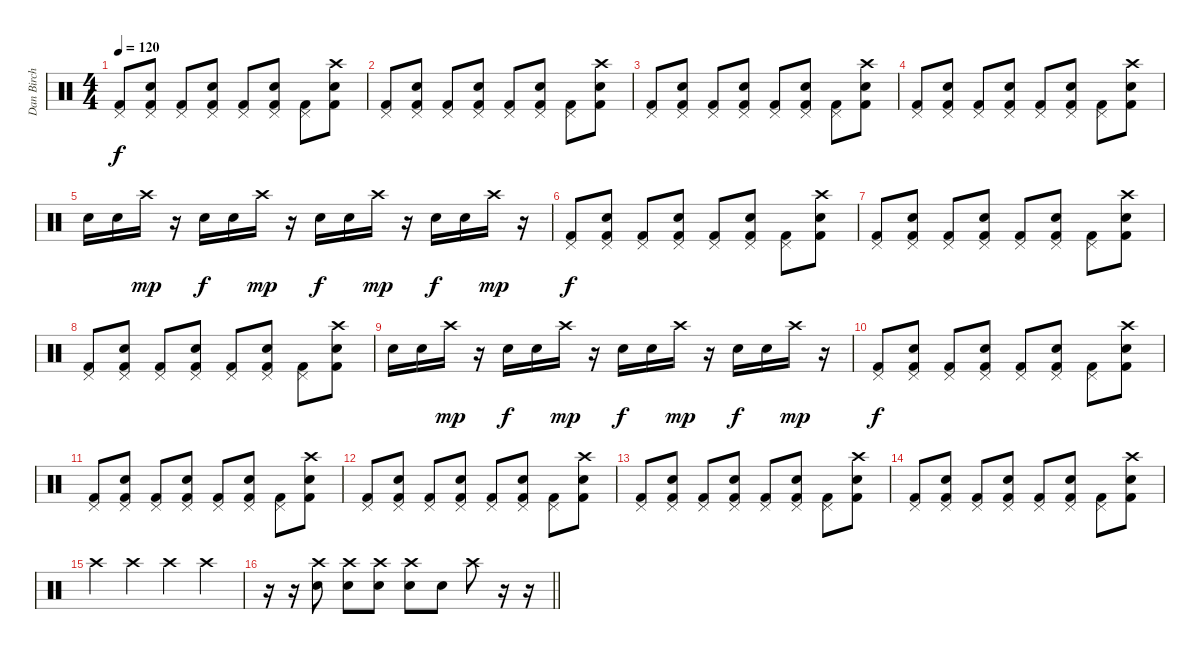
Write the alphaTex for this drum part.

\track ("Dan Birch" "Dan Birch") {instrument percussion}
\staff {score}
\articulation defaults
\ts (4 4)
\tempo 120
\clef neutral
\ks c
("Pedal Hi-Hat (hit)" "Kick (hit) 2").8{dy f} ("Pedal Hi-Hat (hit)" "Snare (hit) 2" "Kick (hit) 2").8 ("Pedal Hi-Hat (hit)" "Kick (hit) 2").8 ("Pedal Hi-Hat (hit)" "Snare (hit) 2" "Kick (hit) 2").8 ("Pedal Hi-Hat (hit)" "Kick (hit) 2").8 ("Pedal Hi-Hat (hit)" "Snare (hit) 2" "Kick (hit) 2").8 ("Pedal Hi-Hat (hit)" "Kick (hit) 2").8 ("Crash high (hit)" "Snare (hit) 2" "Kick (hit) 2").8 |
("Pedal Hi-Hat (hit)" "Kick (hit) 2").8 ("Pedal Hi-Hat (hit)" "Snare (hit) 2" "Kick (hit) 2").8 ("Pedal Hi-Hat (hit)" "Kick (hit) 2").8 ("Pedal Hi-Hat (hit)" "Snare (hit) 2" "Kick (hit) 2").8 ("Pedal Hi-Hat (hit)" "Kick (hit) 2").8 ("Pedal Hi-Hat (hit)" "Snare (hit) 2" "Kick (hit) 2").8 ("Pedal Hi-Hat (hit)" "Kick (hit) 2").8 ("Crash high (hit)" "Snare (hit) 2" "Kick (hit) 2").8 |
("Pedal Hi-Hat (hit)" "Kick (hit) 2").8 ("Pedal Hi-Hat (hit)" "Snare (hit) 2" "Kick (hit) 2").8 ("Pedal Hi-Hat (hit)" "Kick (hit) 2").8 ("Pedal Hi-Hat (hit)" "Snare (hit) 2" "Kick (hit) 2").8 ("Pedal Hi-Hat (hit)" "Kick (hit) 2").8 ("Pedal Hi-Hat (hit)" "Snare (hit) 2" "Kick (hit) 2").8 ("Pedal Hi-Hat (hit)" "Kick (hit) 2").8 ("Crash high (hit)" "Snare (hit) 2" "Kick (hit) 2").8 |
("Pedal Hi-Hat (hit)" "Kick (hit) 2").8 ("Pedal Hi-Hat (hit)" "Snare (hit) 2" "Kick (hit) 2").8 ("Pedal Hi-Hat (hit)" "Kick (hit) 2").8 ("Pedal Hi-Hat (hit)" "Snare (hit) 2" "Kick (hit) 2").8 ("Pedal Hi-Hat (hit)" "Kick (hit) 2").8 ("Pedal Hi-Hat (hit)" "Snare (hit) 2" "Kick (hit) 2").8 ("Pedal Hi-Hat (hit)" "Kick (hit) 2").8 ("Crash high (hit)" "Snare (hit) 2" "Kick (hit) 2").8 |
"Snare (hit) 2".16 "Snare (hit) 2".16 "Crash high (hit)".16{dy mp} r.16 "Snare (hit) 2".16{dy f} "Snare (hit) 2".16 "Crash high (hit)".16{dy mp} r.16 "Snare (hit) 2".16{dy f} "Snare (hit) 2".16 "Crash high (hit)".16{dy mp} r.16 "Snare (hit) 2".16{dy f} "Snare (hit) 2".16 "Crash high (hit)".16{dy mp} r.16 |
("Pedal Hi-Hat (hit)" "Kick (hit) 2").8{dy f} ("Pedal Hi-Hat (hit)" "Snare (hit) 2" "Kick (hit) 2").8 ("Pedal Hi-Hat (hit)" "Kick (hit) 2").8 ("Pedal Hi-Hat (hit)" "Snare (hit) 2" "Kick (hit) 2").8 ("Pedal Hi-Hat (hit)" "Kick (hit) 2").8 ("Pedal Hi-Hat (hit)" "Snare (hit) 2" "Kick (hit) 2").8 ("Pedal Hi-Hat (hit)" "Kick (hit) 2").8 ("Crash high (hit)" "Snare (hit) 2" "Kick (hit) 2").8 |
("Pedal Hi-Hat (hit)" "Kick (hit) 2").8 ("Pedal Hi-Hat (hit)" "Snare (hit) 2" "Kick (hit) 2").8 ("Pedal Hi-Hat (hit)" "Kick (hit) 2").8 ("Pedal Hi-Hat (hit)" "Snare (hit) 2" "Kick (hit) 2").8 ("Pedal Hi-Hat (hit)" "Kick (hit) 2").8 ("Pedal Hi-Hat (hit)" "Snare (hit) 2" "Kick (hit) 2").8 ("Pedal Hi-Hat (hit)" "Kick (hit) 2").8 ("Crash high (hit)" "Snare (hit) 2" "Kick (hit) 2").8 |
("Pedal Hi-Hat (hit)" "Kick (hit) 2").8 ("Pedal Hi-Hat (hit)" "Snare (hit) 2" "Kick (hit) 2").8 ("Pedal Hi-Hat (hit)" "Kick (hit) 2").8 ("Pedal Hi-Hat (hit)" "Snare (hit) 2" "Kick (hit) 2").8 ("Pedal Hi-Hat (hit)" "Kick (hit) 2").8 ("Pedal Hi-Hat (hit)" "Snare (hit) 2" "Kick (hit) 2").8 ("Pedal Hi-Hat (hit)" "Kick (hit) 2").8 ("Crash high (hit)" "Snare (hit) 2" "Kick (hit) 2").8 |
"Snare (hit) 2".16 "Snare (hit) 2".16 "Crash high (hit)".16{dy mp} r.16 "Snare (hit) 2".16{dy f} "Snare (hit) 2".16 "Crash high (hit)".16{dy mp} r.16 "Snare (hit) 2".16{dy f} "Snare (hit) 2".16 "Crash high (hit)".16{dy mp} r.16 "Snare (hit) 2".16{dy f} "Snare (hit) 2".16 "Crash high (hit)".16{dy mp} r.16 |
("Pedal Hi-Hat (hit)" "Kick (hit) 2").8{dy f} ("Pedal Hi-Hat (hit)" "Snare (hit) 2" "Kick (hit) 2").8 ("Pedal Hi-Hat (hit)" "Kick (hit) 2").8 ("Pedal Hi-Hat (hit)" "Snare (hit) 2" "Kick (hit) 2").8 ("Pedal Hi-Hat (hit)" "Kick (hit) 2").8 ("Pedal Hi-Hat (hit)" "Snare (hit) 2" "Kick (hit) 2").8 ("Pedal Hi-Hat (hit)" "Kick (hit) 2").8 ("Crash high (hit)" "Snare (hit) 2" "Kick (hit) 2").8 |
("Pedal Hi-Hat (hit)" "Kick (hit) 2").8 ("Pedal Hi-Hat (hit)" "Snare (hit) 2" "Kick (hit) 2").8 ("Pedal Hi-Hat (hit)" "Kick (hit) 2").8 ("Pedal Hi-Hat (hit)" "Snare (hit) 2" "Kick (hit) 2").8 ("Pedal Hi-Hat (hit)" "Kick (hit) 2").8 ("Pedal Hi-Hat (hit)" "Snare (hit) 2" "Kick (hit) 2").8 ("Pedal Hi-Hat (hit)" "Kick (hit) 2").8 ("Crash high (hit)" "Snare (hit) 2" "Kick (hit) 2").8 |
("Pedal Hi-Hat (hit)" "Kick (hit) 2").8 ("Pedal Hi-Hat (hit)" "Snare (hit) 2" "Kick (hit) 2").8 ("Pedal Hi-Hat (hit)" "Kick (hit) 2").8 ("Pedal Hi-Hat (hit)" "Snare (hit) 2" "Kick (hit) 2").8 ("Pedal Hi-Hat (hit)" "Kick (hit) 2").8 ("Pedal Hi-Hat (hit)" "Snare (hit) 2" "Kick (hit) 2").8 ("Pedal Hi-Hat (hit)" "Kick (hit) 2").8 ("Crash high (hit)" "Snare (hit) 2" "Kick (hit) 2").8 |
("Pedal Hi-Hat (hit)" "Kick (hit) 2").8 ("Pedal Hi-Hat (hit)" "Snare (hit) 2" "Kick (hit) 2").8 ("Pedal Hi-Hat (hit)" "Kick (hit) 2").8 ("Pedal Hi-Hat (hit)" "Snare (hit) 2" "Kick (hit) 2").8 ("Pedal Hi-Hat (hit)" "Kick (hit) 2").8 ("Pedal Hi-Hat (hit)" "Snare (hit) 2" "Kick (hit) 2").8 ("Pedal Hi-Hat (hit)" "Kick (hit) 2").8 ("Crash high (hit)" "Snare (hit) 2" "Kick (hit) 2").8 |
("Pedal Hi-Hat (hit)" "Kick (hit) 2").8 ("Pedal Hi-Hat (hit)" "Snare (hit) 2" "Kick (hit) 2").8 ("Pedal Hi-Hat (hit)" "Kick (hit) 2").8 ("Pedal Hi-Hat (hit)" "Snare (hit) 2" "Kick (hit) 2").8 ("Pedal Hi-Hat (hit)" "Kick (hit) 2").8 ("Pedal Hi-Hat (hit)" "Snare (hit) 2" "Kick (hit) 2").8 ("Pedal Hi-Hat (hit)" "Kick (hit) 2").8 ("Crash high (hit)" "Snare (hit) 2" "Kick (hit) 2").8 |
"Crash high (hit)".4 "Crash high (hit)".4 "Crash high (hit)".4 "Crash high (hit)".4 |
\barLineRight lightlight
r.16 r.16 ("Crash high (hit)" "Snare (hit) 2").8 ("Crash high (hit)" "Snare (hit) 2").8 ("Crash high (hit)" "Snare (hit) 2").8 ("Crash high (hit)" "Snare (hit) 2").8 "Snare (hit) 2".8 "Crash high (hit)".8 r.16 r.16
